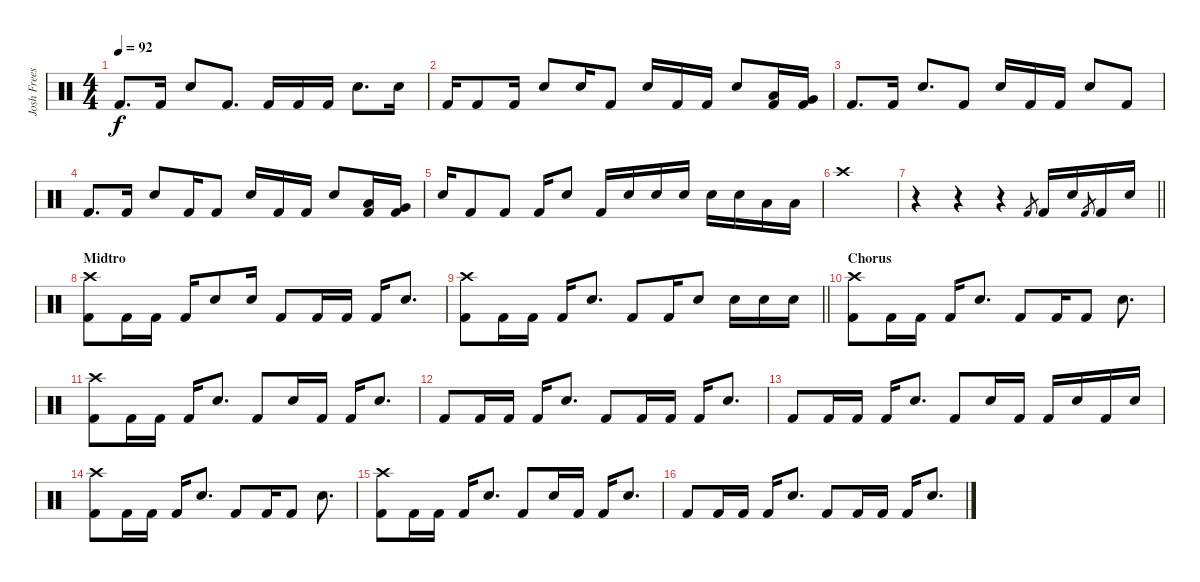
\track ("Josh Freese (Studio Drummer)" "Josh Frees") {instrument percussion}
\staff {score}
\articulation defaults
\ts (4 4)
\tempo 92
\clef neutral
\ks c "Kick (hit) 2".8{d dy f} "Kick (hit) 2".16 "Electric Snare (hit)".8 "Kick (hit) 2".8{d} "Kick (hit) 2".16 "Kick (hit) 2".16 "Kick (hit) 2".16 "Electric Snare (hit)".8{d} "Electric Snare (hit)".16
|
"Kick (hit) 2".16 "Kick (hit) 2".8 "Kick (hit) 2".16 "Electric Snare (hit)".8 "Electric Snare (hit)".16 "Kick (hit) 2".8 "Electric Snare (hit)".16 "Kick (hit) 2".16 "Kick (hit) 2".16 "Electric Snare (hit)".8 ("Low Tom (hit)" "Kick (hit) 2").16 ("Very Low Tom (hit)" "Kick (hit) 2").16 |
"Kick (hit) 2".8{d} "Kick (hit) 2".16 "Electric Snare (hit)".8{d} "Kick (hit) 2".8 "Electric Snare (hit)".16 "Kick (hit) 2".16 "Kick (hit) 2".16 "Electric Snare (hit)".8 "Kick (hit) 2".8 |
"Kick (hit) 2".8{d} "Kick (hit) 2".16 "Electric Snare (hit)".8 "Kick (hit) 2".16 "Kick (hit) 2".8 "Electric Snare (hit)".16 "Kick (hit) 2".16 "Kick (hit) 2".16 "Electric Snare (hit)".8 ("Low Tom (hit)" "Kick (hit) 2").16 ("Very Low Tom (hit)" "Kick (hit) 2").16 |
"Electric Snare (hit)".16 "Kick (hit) 2".8 "Kick (hit) 2".8 "Kick (hit) 2".16 "Electric Snare (hit)".8 "Kick (hit) 2".16 "Electric Snare (hit)".16 "Electric Snare (hit)".16 "Electric Snare (hit)".16 "Electric Snare (hit)".16 "Electric Snare (hit)".16 "Low Tom (hit)".16 "Low Tom (hit)".16 |
"Crash high (hit)".1 |
\barLineRight lightlight
r.4 r.4 r.4 "Kick (hit) 2".8{gr} "Kick (hit) 2".16 "Electric Snare (hit)".16 "Kick (hit) 2".8{gr} "Kick (hit) 2".16 "Electric Snare (hit)".16 |
\section ("" "Midtro")
("Crash high (hit)" "Kick (hit) 2").8 "Kick (hit) 2".16 "Kick (hit) 2".16 "Kick (hit) 2".16 "Electric Snare (hit)".8 "Electric Snare (hit)".16 "Kick (hit) 2".8 "Kick (hit) 2".16 "Kick (hit) 2".16 "Kick (hit) 2".16 "Electric Snare (hit)".8{d} |
\barLineRight lightlight
("Crash high (hit)" "Kick (hit) 2").8 "Kick (hit) 2".16 "Kick (hit) 2".16 "Kick (hit) 2".16 "Electric Snare (hit)".8{d} "Kick (hit) 2".8 "Kick (hit) 2".16 "Electric Snare (hit)".8 "Electric Snare (hit)".16 "Electric Snare (hit)".16 "Electric Snare (hit)".16 |
\section ("" "Chorus")
("Crash high (hit)" "Kick (hit) 2").8{volume 12} "Kick (hit) 2".16 "Kick (hit) 2".16 "Kick (hit) 2".16 "Electric Snare (hit)".8{d} "Kick (hit) 2".8 "Kick (hit) 2".16 "Kick (hit) 2".8 "Electric Snare (hit)".8{d} |
("Crash high (hit)" "Kick (hit) 2").8 "Kick (hit) 2".16 "Kick (hit) 2".16 "Kick (hit) 2".16 "Electric Snare (hit)".8{d} "Kick (hit) 2".8 "Electric Snare (hit)".16 "Kick (hit) 2".16 "Kick (hit) 2".16 "Electric Snare (hit)".8{d} |
"Kick (hit) 2".8 "Kick (hit) 2".16 "Kick (hit) 2".16 "Kick (hit) 2".16 "Electric Snare (hit)".8{d} "Kick (hit) 2".8 "Kick (hit) 2".16 "Kick (hit) 2".16 "Kick (hit) 2".16 "Electric Snare (hit)".8{d} |
"Kick (hit) 2".8 "Kick (hit) 2".16 "Kick (hit) 2".16 "Kick (hit) 2".16 "Electric Snare (hit)".8{d} "Kick (hit) 2".8 "Electric Snare (hit)".16 "Kick (hit) 2".16 "Kick (hit) 2".16 "Electric Snare (hit)".16 "Kick (hit) 2".16 "Electric Snare (hit)".16 |
("Crash high (hit)" "Kick (hit) 2").8 "Kick (hit) 2".16 "Kick (hit) 2".16 "Kick (hit) 2".16 "Electric Snare (hit)".8{d} "Kick (hit) 2".8 "Kick (hit) 2".16 "Kick (hit) 2".8 "Electric Snare (hit)".8{d} |
("Crash high (hit)" "Kick (hit) 2").8 "Kick (hit) 2".16 "Kick (hit) 2".16 "Kick (hit) 2".16 "Electric Snare (hit)".8{d} "Kick (hit) 2".8 "Electric Snare (hit)".16 "Kick (hit) 2".16 "Kick (hit) 2".16 "Electric Snare (hit)".8{d} |
"Kick (hit) 2".8 "Kick (hit) 2".16 "Kick (hit) 2".16 "Kick (hit) 2".16 "Electric Snare (hit)".8{d} "Kick (hit) 2".8 "Kick (hit) 2".16 "Kick (hit) 2".16 "Kick (hit) 2".16 "Electric Snare (hit)".8{d}
